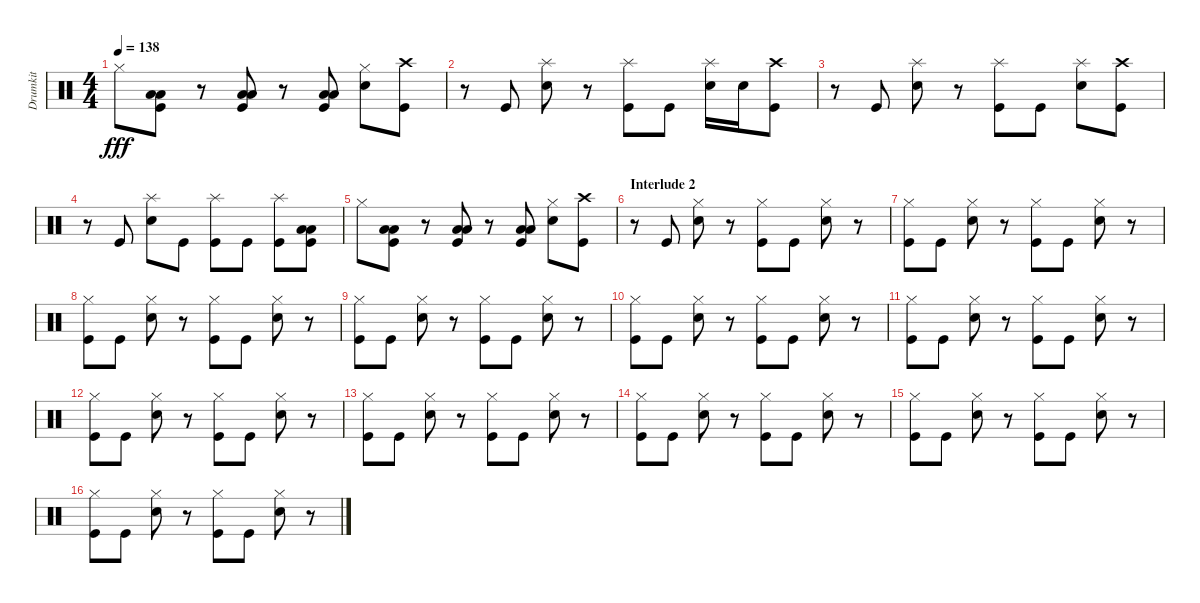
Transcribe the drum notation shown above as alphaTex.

\track ("Drumkit" "Drumkit") {instrument percussion}
\staff {score}
\articulation defaults
\ts (4 4)
\tempo 138
\clef neutral
\ks c "Hi-Hat (closed)".8{dy fff}
("Low Tom (hit)" "Low Floor Tom (hit)" "Kick (hit)").8 r.8 ("Low Tom (hit)" "Low Floor Tom (hit)" "Kick (hit)").8 r.8 ("Low Tom (hit)" "Low Floor Tom (hit)" "Kick (hit)").8 ("Hi-Hat (closed)" "Snare (hit) 2").8 ("Crash high (hit)" "Kick (hit)").8 |
r.8 "Kick (hit)".8 ("Splash (hit)" "Snare (hit) 2").8 r.8 ("Splash (hit)" "Kick (hit)").8 "Kick (hit)".8 ("Splash (hit)" "Snare (hit) 2").16 "Snare (hit) 2".16 ("Crash high (hit)" "Kick (hit)").8 |
r.8 "Kick (hit)".8 ("Splash (hit)" "Snare (hit) 2").8 r.8 ("Splash (hit)" "Kick (hit)").8 "Kick (hit)".8 ("Splash (hit)" "Snare (hit) 2").8 ("Crash high (hit)" "Kick (hit)").8 |
r.8 "Kick (hit)".8 ("Splash (hit)" "Snare (hit) 2").8 "Kick (hit)".8 ("Splash (hit)" "Kick (hit)").8 "Kick (hit)".8 ("Splash (hit)" "Kick (hit)").8 ("Low Tom (hit)" "Low Floor Tom (hit)" "Kick (hit)").8 |
"Hi-Hat (closed)".8 ("Low Tom (hit)" "Low Floor Tom (hit)" "Kick (hit)").8 r.8 ("Low Tom (hit)" "Low Floor Tom (hit)" "Kick (hit)").8 r.8 ("Low Tom (hit)" "Low Floor Tom (hit)" "Kick (hit)").8 ("Hi-Hat (closed)" "Snare (hit) 2").8 ("Crash high (hit)" "Kick (hit)").8 |
\section ("" "Interlude 2")
r.8 "Kick (hit)".8 ("Hi-Hat (closed)" "Snare (hit) 2").8 r.8 ("Hi-Hat (closed)" "Kick (hit)").8 "Kick (hit)".8 ("Hi-Hat (closed)" "Snare (hit) 2").8 r.8 |
("Hi-Hat (closed)" "Kick (hit)").8 "Kick (hit)".8 ("Hi-Hat (closed)" "Snare (hit) 2").8 r.8 ("Hi-Hat (closed)" "Kick (hit)").8 "Kick (hit)".8 ("Hi-Hat (closed)" "Snare (hit) 2").8 r.8 |
("Hi-Hat (closed)" "Kick (hit)").8 "Kick (hit)".8 ("Hi-Hat (closed)" "Snare (hit) 2").8 r.8 ("Hi-Hat (closed)" "Kick (hit)").8 "Kick (hit)".8 ("Hi-Hat (closed)" "Snare (hit) 2").8 r.8 |
("Hi-Hat (closed)" "Kick (hit)").8 "Kick (hit)".8 ("Hi-Hat (closed)" "Snare (hit) 2").8 r.8 ("Hi-Hat (closed)" "Kick (hit)").8 "Kick (hit)".8 ("Hi-Hat (closed)" "Snare (hit) 2").8 r.8 |
("Hi-Hat (closed)" "Kick (hit)").8 "Kick (hit)".8 ("Hi-Hat (closed)" "Snare (hit) 2").8 r.8 ("Hi-Hat (closed)" "Kick (hit)").8 "Kick (hit)".8 ("Hi-Hat (closed)" "Snare (hit) 2").8 r.8 |
("Hi-Hat (closed)" "Kick (hit)").8 "Kick (hit)".8 ("Hi-Hat (closed)" "Snare (hit) 2").8 r.8 ("Hi-Hat (closed)" "Kick (hit)").8 "Kick (hit)".8 ("Hi-Hat (closed)" "Snare (hit) 2").8 r.8 |
("Hi-Hat (closed)" "Kick (hit)").8 "Kick (hit)".8 ("Hi-Hat (closed)" "Snare (hit) 2").8 r.8 ("Hi-Hat (closed)" "Kick (hit)").8 "Kick (hit)".8 ("Hi-Hat (closed)" "Snare (hit) 2").8 r.8 |
("Hi-Hat (closed)" "Kick (hit)").8 "Kick (hit)".8 ("Hi-Hat (closed)" "Snare (hit) 2").8 r.8 ("Hi-Hat (closed)" "Kick (hit)").8 "Kick (hit)".8 ("Hi-Hat (closed)" "Snare (hit) 2").8 r.8 |
("Hi-Hat (closed)" "Kick (hit)").8 "Kick (hit)".8 ("Hi-Hat (closed)" "Snare (hit) 2").8 r.8 ("Hi-Hat (closed)" "Kick (hit)").8 "Kick (hit)".8 ("Hi-Hat (closed)" "Snare (hit) 2").8 r.8 |
("Hi-Hat (closed)" "Kick (hit)").8 "Kick (hit)".8 ("Hi-Hat (closed)" "Snare (hit) 2").8 r.8 ("Hi-Hat (closed)" "Kick (hit)").8 "Kick (hit)".8 ("Hi-Hat (closed)" "Snare (hit) 2").8 r.8 |
("Hi-Hat (closed)" "Kick (hit)").8 "Kick (hit)".8 ("Hi-Hat (closed)" "Snare (hit) 2").8 r.8 ("Hi-Hat (closed)" "Kick (hit)").8 "Kick (hit)".8 ("Hi-Hat (closed)" "Snare (hit) 2").8 r.8
